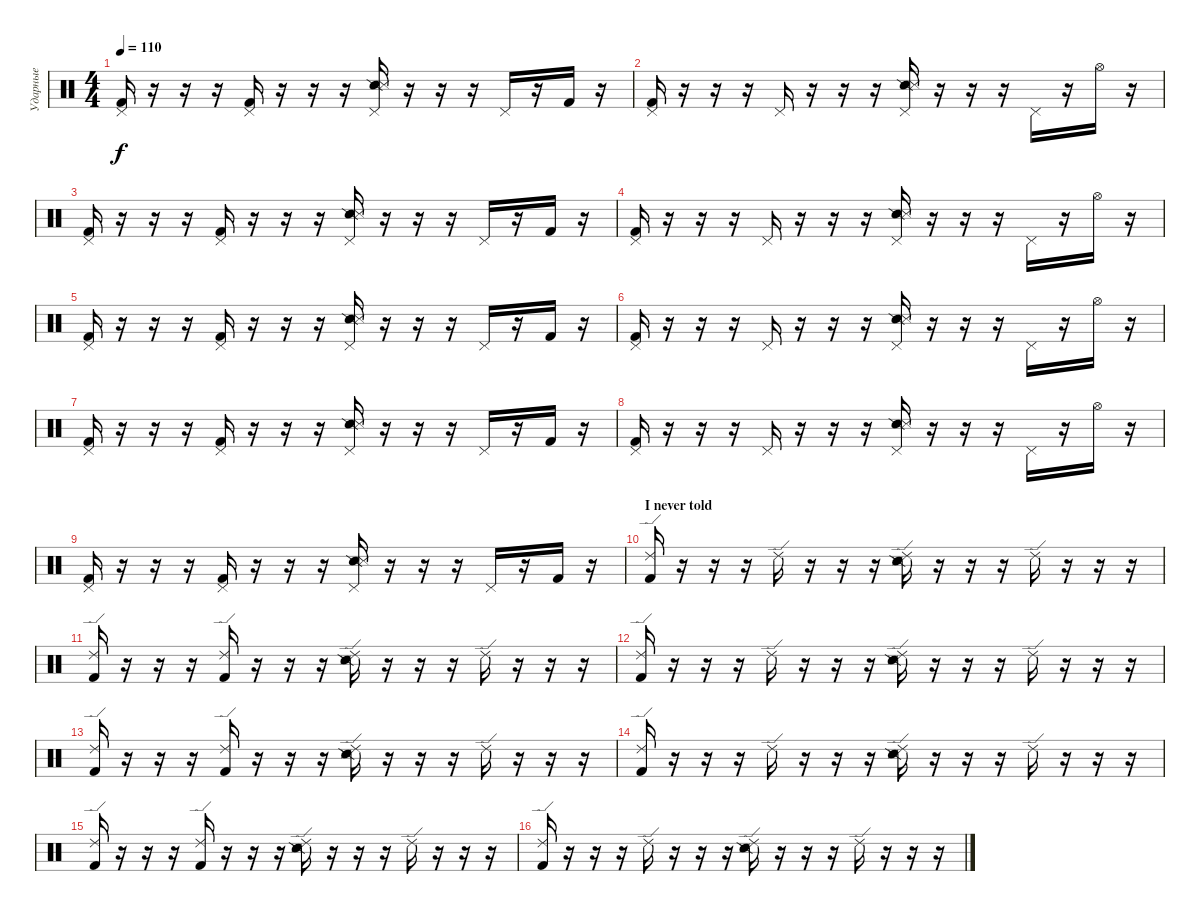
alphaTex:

\track ("Ударные" "Ударные") {instrument percussion}
\staff {score}
\articulation defaults
\ts (4 4)
\tempo 110
\clef neutral
\ks c
("Pedal Hi-Hat (hit)" "Kick (hit) 2").16{dy f} r.16 r.16 r.16 ("Pedal Hi-Hat (hit)" "Kick (hit) 2").16 r.16 r.16 r.16 ("Pedal Hi-Hat (hit)" "Snare (side stick) 2" "Metronome (hit)").16 r.16 r.16 r.16 "Pedal Hi-Hat (hit)".16 r.16 "Kick (hit) 2".16 r.16 |
("Pedal Hi-Hat (hit)" "Kick (hit) 2").16 r.16 r.16 r.16 "Pedal Hi-Hat (hit)".16 r.16 r.16 r.16 ("Pedal Hi-Hat (hit)" "Snare (side stick) 2" "Metronome (hit)").16 r.16 r.16 r.16 "Pedal Hi-Hat (hit)".16 r.16 "Hi-Hat (open)".16 r.16 |
("Pedal Hi-Hat (hit)" "Kick (hit) 2").16 r.16 r.16 r.16 ("Pedal Hi-Hat (hit)" "Kick (hit) 2").16 r.16 r.16 r.16 ("Pedal Hi-Hat (hit)" "Snare (side stick) 2" "Metronome (hit)").16 r.16 r.16 r.16 "Pedal Hi-Hat (hit)".16 r.16 "Kick (hit) 2".16 r.16 |
("Pedal Hi-Hat (hit)" "Kick (hit) 2").16 r.16 r.16 r.16 "Pedal Hi-Hat (hit)".16 r.16 r.16 r.16 ("Pedal Hi-Hat (hit)" "Snare (side stick) 2" "Metronome (hit)").16 r.16 r.16 r.16 "Pedal Hi-Hat (hit)".16 r.16 "Hi-Hat (open)".16 r.16 |
("Pedal Hi-Hat (hit)" "Kick (hit) 2").16 r.16 r.16 r.16 ("Pedal Hi-Hat (hit)" "Kick (hit) 2").16 r.16 r.16 r.16 ("Pedal Hi-Hat (hit)" "Snare (side stick) 2" "Metronome (hit)").16 r.16 r.16 r.16 "Pedal Hi-Hat (hit)".16 r.16 "Kick (hit) 2".16 r.16 |
("Pedal Hi-Hat (hit)" "Kick (hit) 2").16 r.16 r.16 r.16 "Pedal Hi-Hat (hit)".16 r.16 r.16 r.16 ("Pedal Hi-Hat (hit)" "Snare (side stick) 2" "Metronome (hit)").16 r.16 r.16 r.16 "Pedal Hi-Hat (hit)".16 r.16 "Hi-Hat (open)".16 r.16 |
("Pedal Hi-Hat (hit)" "Kick (hit) 2").16 r.16 r.16 r.16 ("Pedal Hi-Hat (hit)" "Kick (hit) 2").16 r.16 r.16 r.16 ("Pedal Hi-Hat (hit)" "Snare (side stick) 2" "Metronome (hit)").16 r.16 r.16 r.16 "Pedal Hi-Hat (hit)".16 r.16 "Kick (hit) 2".16 r.16 |
("Pedal Hi-Hat (hit)" "Kick (hit) 2").16 r.16 r.16 r.16 "Pedal Hi-Hat (hit)".16 r.16 r.16 r.16 ("Pedal Hi-Hat (hit)" "Snare (side stick) 2" "Metronome (hit)").16 r.16 r.16 r.16 "Pedal Hi-Hat (hit)".16 r.16 "Hi-Hat (open)".16 r.16 |
("Pedal Hi-Hat (hit)" "Kick (hit) 2").16 r.16 r.16 r.16 ("Pedal Hi-Hat (hit)" "Kick (hit) 2").16 r.16 r.16 r.16 ("Pedal Hi-Hat (hit)" "Snare (side stick) 2" "Metronome (hit)").16 r.16 r.16 r.16 "Pedal Hi-Hat (hit)".16 r.16 "Kick (hit) 2".16 r.16 |
\section ("" "I never told")
("Ride (edge) 2" "Kick (hit) 2").16 r.16 r.16 r.16 "Ride (edge) 2".16 r.16 r.16 r.16 ("Ride (edge) 2" "Snare (side stick) 2" "Metronome (hit)").16 r.16 r.16 r.16 "Ride (edge) 2".16 r.16 r.16 r.16 |
("Ride (edge) 2" "Kick (hit) 2").16 r.16 r.16 r.16 ("Ride (edge) 2" "Kick (hit) 2").16 r.16 r.16 r.16 ("Ride (edge) 2" "Snare (side stick) 2" "Metronome (hit)").16 r.16 r.16 r.16 "Ride (edge) 2".16 r.16 r.16 r.16 |
("Ride (edge) 2" "Kick (hit) 2").16 r.16 r.16 r.16 "Ride (edge) 2".16 r.16 r.16 r.16 ("Ride (edge) 2" "Snare (side stick) 2" "Metronome (hit)").16 r.16 r.16 r.16 "Ride (edge) 2".16 r.16 r.16 r.16 |
("Ride (edge) 2" "Kick (hit) 2").16 r.16 r.16 r.16 ("Ride (edge) 2" "Kick (hit) 2").16 r.16 r.16 r.16 ("Ride (edge) 2" "Snare (side stick) 2" "Metronome (hit)").16 r.16 r.16 r.16 "Ride (edge) 2".16 r.16 r.16 r.16 |
("Ride (edge) 2" "Kick (hit) 2").16 r.16 r.16 r.16 "Ride (edge) 2".16 r.16 r.16 r.16 ("Ride (edge) 2" "Snare (side stick) 2" "Metronome (hit)").16 r.16 r.16 r.16 "Ride (edge) 2".16 r.16 r.16 r.16 |
("Ride (edge) 2" "Kick (hit) 2").16 r.16 r.16 r.16 ("Ride (edge) 2" "Kick (hit) 2").16 r.16 r.16 r.16 ("Ride (edge) 2" "Snare (side stick) 2" "Metronome (hit)").16 r.16 r.16 r.16 "Ride (edge) 2".16 r.16 r.16 r.16 |
("Ride (edge) 2" "Kick (hit) 2").16 r.16 r.16 r.16 "Ride (edge) 2".16 r.16 r.16 r.16 ("Ride (edge) 2" "Snare (side stick) 2" "Metronome (hit)").16 r.16 r.16 r.16 "Ride (edge) 2".16 r.16 r.16 r.16
